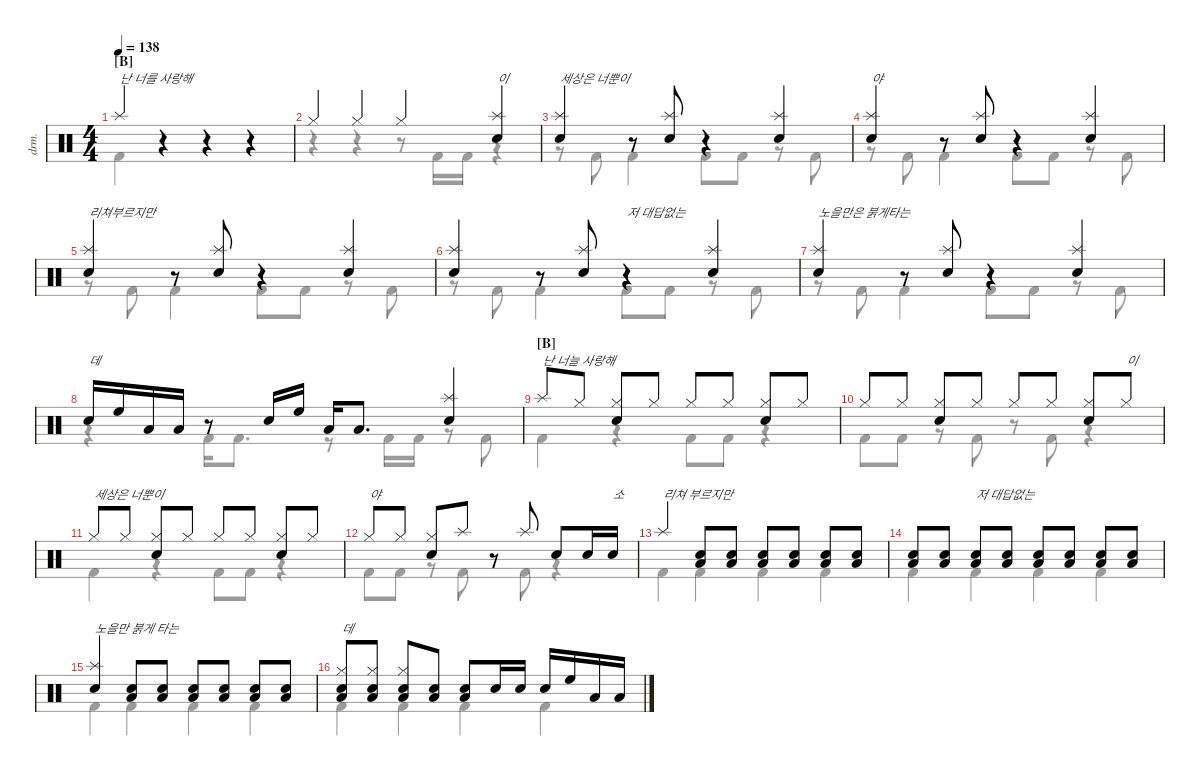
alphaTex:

\defaultSystemsLayout 4
\hideDynamics
\bracketExtendMode nobrackets
\track ("Drumkit" "drm.") {instrument percussion}
\staff {score}
\articulation defaults
\voice
\ts (4 4)
\section ("B" "")
\tempo 138
\clef neutral
\ks c "Splash (hit)".4{txt "난 너를 사랑해" dy mf beam Up}
r.4{beam Up} r.4{beam Up} r.4{beam Up} |
"Hi-Hat (closed)".4{beam Up} "Hi-Hat (closed)".4{beam Up} "Hi-Hat (closed)".4{beam Up} ("Splash (hit)" "Snare (hit) 2").4{txt "이" beam Up} |
("Splash (hit)" "Snare (hit) 2").4{txt "세상은 너뿐이" beam Up} r.8{beam Up} ("Splash (hit)" "Snare (hit) 2").8{beam Up} r.4{beam Up} ("Splash (hit)" "Snare (hit) 2").4{beam Up} |
("Splash (hit)" "Snare (hit) 2").4{txt "야" beam Up} r.8{beam Up} ("Splash (hit)" "Snare (hit) 2").8{beam Up} r.4{beam Up} ("Splash (hit)" "Snare (hit) 2").4{beam Up} |
("Splash (hit)" "Snare (hit) 2").4{txt "리쳐부르지만" beam Up} r.8{beam Up} ("Splash (hit)" "Snare (hit) 2").8{beam Up} r.4{beam Up} ("Splash (hit)" "Snare (hit) 2").4{beam Up} |
("Splash (hit)" "Snare (hit) 2").4{beam Up} r.8{beam Up} ("Splash (hit)" "Snare (hit) 2").8{beam Up} r.4{txt "저 대답없는" beam Up} ("Splash (hit)" "Snare (hit) 2").4{beam Up} |
("Splash (hit)" "Snare (hit) 2").4{txt "노을만은 붉게타는" beam Up} r.8{beam Up} ("Splash (hit)" "Snare (hit) 2").8{beam Up} r.4{beam Up} ("Splash (hit)" "Snare (hit) 2").4{beam Up} |
"Snare (hit) 2".16{txt "데" beam Up} "High Floor Tom (hit)".16{beam Up} "Low Tom (hit)".16{beam Up} "Low Tom (hit)".16{beam Up} r.8{beam Up} "Snare (hit) 2".16{beam Up} "High Floor Tom (hit)".16{beam Up} "Low Tom (hit)".16{beam Up} "Low Tom (hit)".8{d beam Up} ("Snare (hit) 2" "Splash (hit)").4{beam Up} |
\section ("B" "")
"Splash (hit)".8{txt "난 너늘 사랑해" beam Up} "Hi-Hat (closed)".8{beam Up} ("Hi-Hat (closed)" "Snare (hit) 2").8{beam Up} "Hi-Hat (closed)".8{beam Up} "Hi-Hat (closed)".8{beam Up} "Hi-Hat (closed)".8{beam Up} ("Hi-Hat (closed)" "Snare (hit) 2").8{beam Up} "Hi-Hat (closed)".8{beam Up} |
"Hi-Hat (closed)".8{beam Up} "Hi-Hat (closed)".8{beam Up} ("Hi-Hat (closed)" "Snare (hit) 2").8{beam Up} "Hi-Hat (closed)".8{beam Up} "Hi-Hat (closed)".8{beam Up} "Hi-Hat (closed)".8{beam Up} ("Hi-Hat (closed)" "Snare (hit) 2").8{beam Up} "Hi-Hat (closed)".8{txt "이" beam Up} |
"Hi-Hat (closed)".8{txt "세상은 너뿐이" beam Up} "Hi-Hat (closed)".8{beam Up} ("Hi-Hat (closed)" "Snare (hit) 2").8{beam Up} "Hi-Hat (closed)".8{beam Up} "Hi-Hat (closed)".8{beam Up} "Hi-Hat (closed)".8{beam Up} ("Hi-Hat (closed)" "Snare (hit) 2").8{beam Up} "Hi-Hat (closed)".8{beam Up} |
"Hi-Hat (closed)".8{txt "야" beam Up} "Hi-Hat (closed)".8{beam Up} ("Hi-Hat (closed)" "Snare (hit) 2").8{beam Up} "Splash (hit)".8{beam Up} r.8{beam Up} "Splash (hit)".8{beam Up} "Snare (hit) 2".8{beam Up} "Snare (hit) 2".16{beam Up} "Snare (hit) 2".16{txt "소" beam Up} |
"Splash (hit)".4{txt "리쳐 부르지만" beam Up} ("Snare (hit) 2" "Low Tom (hit)").8{beam Up} ("Snare (hit) 2" "Low Tom (hit)").8{beam Up} ("Snare (hit) 2" "Low Tom (hit)").8{beam Up} ("Snare (hit) 2" "Low Tom (hit)").8{beam Up} ("Snare (hit) 2" "Low Tom (hit)").8{beam Up} ("Snare (hit) 2" "Low Tom (hit)").8{beam Up} |
("Low Tom (hit)" "Snare (hit) 2").8{beam Up} ("Low Tom (hit)" "Snare (hit) 2").8{beam Up} ("Snare (hit) 2" "Low Tom (hit)").8{txt "저 대답없는" beam Up} ("Low Tom (hit)" "Snare (hit) 2").8{beam Up} ("Low Tom (hit)" "Snare (hit) 2").8{beam Up} ("Snare (hit) 2" "Low Tom (hit)").8{beam Up} ("Snare (hit) 2" "Low Tom (hit)").8{beam Up} ("Snare (hit) 2" "Low Tom (hit)").8{beam Up} |
("Splash (hit)" "Snare (hit) 2").4{txt "노을만 붉게 타는" beam Up} ("Snare (hit) 2" "Low Tom (hit)").8{beam Up} ("Snare (hit) 2" "Low Tom (hit)").8{beam Up} ("Snare (hit) 2" "Low Tom (hit)").8{beam Up} ("Snare (hit) 2" "Low Tom (hit)").8{beam Up} ("Snare (hit) 2" "Low Tom (hit)").8{beam Up} ("Snare (hit) 2" "Low Tom (hit)").8{beam Up} |
("Hi-Hat (closed)" "Snare (hit) 2" "Low Tom (hit)").8{txt "데" beam Up} ("Hi-Hat (closed)" "Snare (hit) 2" "Low Tom (hit)").8{beam Up} ("Hi-Hat (closed)" "Snare (hit) 2" "Low Tom (hit)").8{beam Up} ("Snare (hit) 2" "Low Tom (hit)").8{beam Up} ("Snare (hit) 2" "Low Tom (hit)").8{beam Up} "Snare (hit) 2".16{beam Up} "Snare (hit) 2".16{beam Up} "Snare (hit) 2".16{beam Up} "High Floor Tom (hit)".16{beam Up} "Low Tom (hit)".16{beam Up} "Low Tom (hit)".16{beam Up}
\voice
\clef neutral
\ottava regular
\simile none
\ks c
|
|
|
|
|
|
|
|
|
|
|
|
|
|
|
\voice
\clef neutral
\ottava regular
\simile none
\ks c "Kick (hit) 2".4{dy mf beam Down}
r.4{beam Down} r.4{beam Down} r.4{beam Down} |
r.4{beam Down} r.4{beam Down} r.8{beam Down} "Kick (hit) 2".16{beam Down} "Kick (hit) 2".16{beam Down} r.4{beam Down} |
r.8{beam Down} "Kick (hit) 2".8{beam Down} "Kick (hit) 2".4{beam Down} "Kick (hit) 2".8{beam Down} "Kick (hit) 2".8{beam Down} r.8{beam Down} "Kick (hit) 2".8{beam Down} |
r.8{beam Down} "Kick (hit) 2".8{beam Down} "Kick (hit) 2".4{beam Down} "Kick (hit) 2".8{beam Down} "Kick (hit) 2".8{beam Down} r.8{beam Down} "Kick (hit) 2".8{beam Down} |
r.8{beam Down} "Kick (hit) 2".8{beam Down} "Kick (hit) 2".4{beam Down} "Kick (hit) 2".8{beam Down} "Kick (hit) 2".8{beam Down} r.8{beam Down} "Kick (hit) 2".8{beam Down} |
r.8{beam Down} "Kick (hit) 2".8{beam Down} "Kick (hit) 2".4{beam Down} "Kick (hit) 2".8{beam Down} "Kick (hit) 2".8{beam Down} r.8{beam Down} "Kick (hit) 2".8{beam Down} |
r.8{beam Down} "Kick (hit) 2".8{beam Down} "Kick (hit) 2".4{beam Down} "Kick (hit) 2".8{beam Down} "Kick (hit) 2".8{beam Down} r.8{beam Down} "Kick (hit) 2".8{beam Down} |
r.4{beam Down} "Kick (hit) 2".16{beam Down} "Kick (hit) 2".8{d beam Down} r.8{beam Down} "Kick (hit) 2".16{beam Down} "Kick (hit) 2".16{beam Down} r.8{beam Down} "Kick (hit) 2".8{beam Down} |
"Kick (hit) 2".4{beam Down} r.4{beam Down} "Kick (hit) 2".8{beam Down} "Kick (hit) 2".8{beam Down} r.4{beam Down} |
"Kick (hit) 2".8{beam Down} "Kick (hit) 2".8{beam Down} r.8{beam Down} "Kick (hit) 2".8{beam Down} r.8{beam Down} "Kick (hit) 2".8{beam Down} r.4{beam Down} |
"Kick (hit) 2".4{beam Down} r.4{beam Down} "Kick (hit) 2".8{beam Down} "Kick (hit) 2".8{beam Down} r.4{beam Down} |
"Kick (hit) 2".8{beam Down} "Kick (hit) 2".8{beam Down} r.8{beam Down} "Kick (hit) 2".8{beam Down} r.8{beam Down} "Kick (hit) 2".8{beam Down} r.4{beam Down} |
"Kick (hit) 2".4{beam Down} "Kick (hit) 2".4{beam Down} "Kick (hit) 2".4{beam Down} "Kick (hit) 2".4{beam Down} |
"Kick (hit) 2".4{beam Down} "Kick (hit) 2".4{beam Down} "Kick (hit) 2".4{beam Down} "Kick (hit) 2".4{beam Down} |
"Kick (hit) 2".4{beam Down} "Kick (hit) 2".4{beam Down} "Kick (hit) 2".4{beam Down} "Kick (hit) 2".4{beam Down} |
"Kick (hit) 2".4{beam Down} "Kick (hit) 2".4{beam Down} "Kick (hit) 2".4{beam Down} "Kick (hit) 2".4{beam Down}
